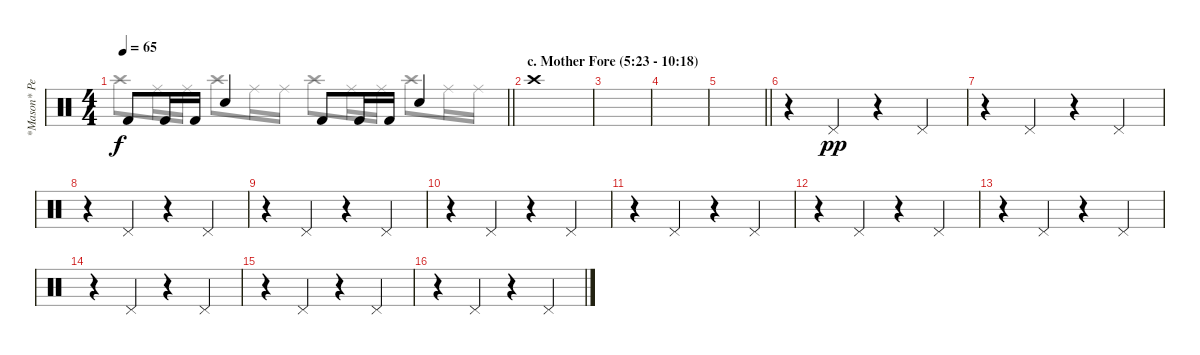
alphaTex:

\track ("*Mason* Percussion" "*Mason* Pe") {instrument percussion}
\staff {score}
\articulation defaults
\voice
\ts (4 4)
\tempo 65
\clef neutral
\barLineRight lightlight
\ks c "Kick (hit) 2".8{dy f} "Kick (hit) 2".16 "Kick (hit) 2".16 "Snare (hit) 2".4 "Kick (hit) 2".8 "Kick (hit) 2".16 "Kick (hit) 2".16 "Snare (hit) 2".4
|
\section ("" "c. Mother Fore (5:23 - 10:18)")
"Crash high (hit)".1 |
|
|
\barLineRight lightlight
|
r.4{volume 7} "Pedal Hi-Hat (hit)".4{dy pp} r.4 "Pedal Hi-Hat (hit)".4 |
r.4 "Pedal Hi-Hat (hit)".4 r.4 "Pedal Hi-Hat (hit)".4 |
r.4 "Pedal Hi-Hat (hit)".4 r.4 "Pedal Hi-Hat (hit)".4 |
r.4 "Pedal Hi-Hat (hit)".4 r.4 "Pedal Hi-Hat (hit)".4 |
r.4 "Pedal Hi-Hat (hit)".4 r.4 "Pedal Hi-Hat (hit)".4 |
r.4 "Pedal Hi-Hat (hit)".4 r.4 "Pedal Hi-Hat (hit)".4 |
r.4 "Pedal Hi-Hat (hit)".4 r.4 "Pedal Hi-Hat (hit)".4 |
r.4 "Pedal Hi-Hat (hit)".4 r.4 "Pedal Hi-Hat (hit)".4 |
r.4 "Pedal Hi-Hat (hit)".4 r.4 "Pedal Hi-Hat (hit)".4 |
r.4 "Pedal Hi-Hat (hit)".4 r.4 "Pedal Hi-Hat (hit)".4 |
r.4 "Pedal Hi-Hat (hit)".4 r.4 "Pedal Hi-Hat (hit)".4
\voice
\clef neutral
\ottava regular
\simile none
\barLineRight lightlight
\ks c "Crash high (hit)".8{dy f} "Ride (middle)".16 "Ride (middle)".16 "Crash high (hit)".8 "Ride (middle)".16 "Ride (middle)".16 "Crash high (hit)".8 "Ride (middle)".16 "Ride (middle)".16 "Crash high (hit)".8 "Ride (middle)".16 "Ride (middle)".16
|
|
|
|
\barLineRight lightlight
|
|
|
|
|
|
|
|
|
|
|
